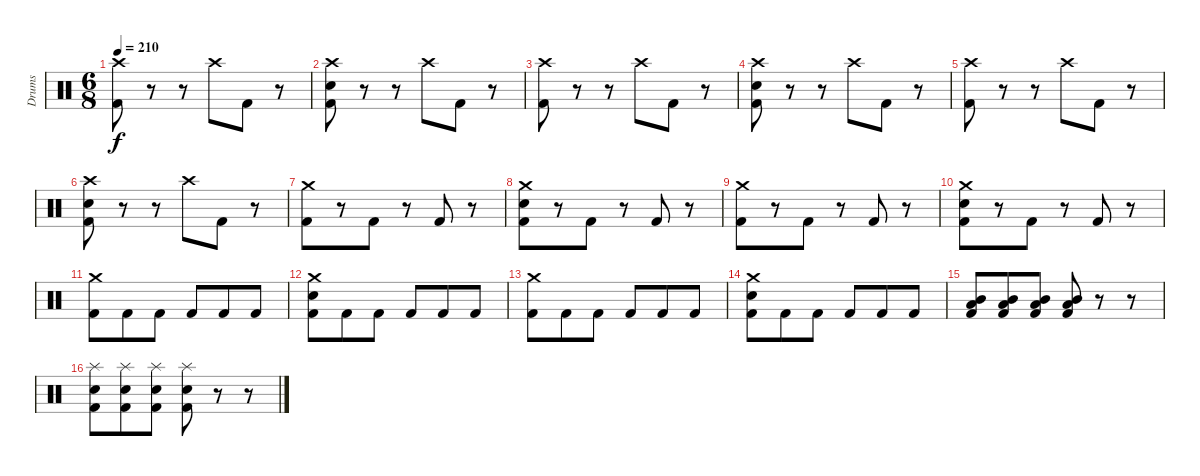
\track ("Drums" "Drums") {instrument percussion}
\staff {score}
\articulation defaults
\ts (6 8)
\tempo 210
\clef neutral
\ks c
("Crash high (hit)" "Kick (hit) 2").8{dy f} r.8 r.8 "Crash high (hit)".8 "Kick (hit) 2".8 r.8 |
("Crash high (hit)" "Snare (hit) 2" "Kick (hit) 2").8 r.8 r.8 "Crash high (hit)".8 "Kick (hit) 2".8 r.8 |
("Crash high (hit)" "Kick (hit) 2").8 r.8 r.8 "Crash high (hit)".8 "Kick (hit) 2".8 r.8 |
("Crash high (hit)" "Snare (hit) 2" "Kick (hit) 2").8 r.8 r.8 "Crash high (hit)".8 "Kick (hit) 2".8 r.8 |
("Crash high (hit)" "Kick (hit) 2").8 r.8 r.8 "Crash high (hit)".8 "Kick (hit) 2".8 r.8 |
("Crash high (hit)" "Snare (hit) 2" "Kick (hit) 2").8 r.8 r.8 "Crash high (hit)".8 "Kick (hit) 2".8 r.8 |
("Crash medium (hit)" "Kick (hit) 2").8 r.8 "Kick (hit) 2".8 r.8 "Kick (hit) 2".8 r.8 |
("Crash medium (hit)" "Snare (hit) 2" "Kick (hit) 2").8 r.8 "Kick (hit) 2".8 r.8 "Kick (hit) 2".8 r.8 |
("Crash medium (hit)" "Kick (hit) 2").8 r.8 "Kick (hit) 2".8 r.8 "Kick (hit) 2".8 r.8 |
("Crash medium (hit)" "Snare (hit) 2" "Kick (hit) 2").8 r.8 "Kick (hit) 2".8 r.8 "Kick (hit) 2".8 r.8 |
("Crash medium (hit)" "Kick (hit) 2").8 "Kick (hit) 2".8 "Kick (hit) 2".8 "Kick (hit) 2".8 "Kick (hit) 2".8 "Kick (hit) 2".8 |
("Crash medium (hit)" "Snare (hit) 2" "Kick (hit) 2").8 "Kick (hit) 2".8 "Kick (hit) 2".8 "Kick (hit) 2".8 "Kick (hit) 2".8 "Kick (hit) 2".8 |
("Crash medium (hit)" "Kick (hit) 2").8 "Kick (hit) 2".8 "Kick (hit) 2".8 "Kick (hit) 2".8 "Kick (hit) 2".8 "Kick (hit) 2".8 |
("Crash medium (hit)" "Snare (hit) 2" "Kick (hit) 2").8 "Kick (hit) 2".8 "Kick (hit) 2".8 "Kick (hit) 2".8 "Kick (hit) 2".8 "Kick (hit) 2".8 |
("Low Tom (hit)" "Mid Tom (hit)" "Kick (hit) 2").8 ("Low Tom (hit)" "Mid Tom (hit)" "Kick (hit) 2").8 ("Low Tom (hit)" "Mid Tom (hit)" "Kick (hit) 2").8 ("Low Tom (hit)" "Mid Tom (hit)" "Kick (hit) 2").8 r.8 r.8 |
("Splash (hit)" "Snare (hit) 2" "Kick (hit) 2").8 ("Splash (hit)" "Snare (hit) 2" "Kick (hit) 2").8 ("Splash (hit)" "Snare (hit) 2" "Kick (hit) 2").8 ("Splash (hit)" "Snare (hit) 2" "Kick (hit) 2").8 r.8 r.8
